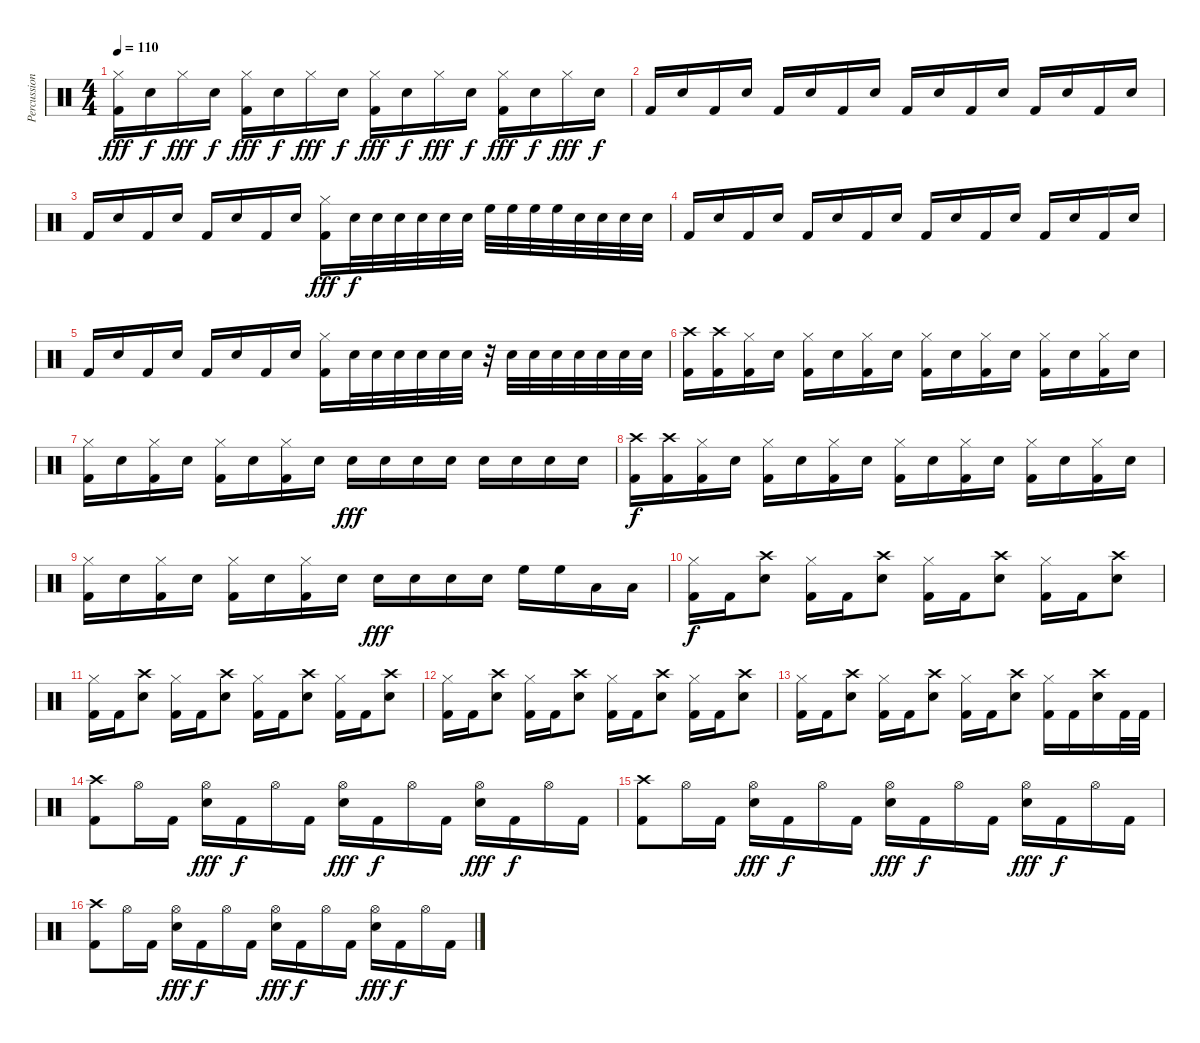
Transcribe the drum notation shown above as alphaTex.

\track ("Percussions" "Percussion") {instrument percussion}
\staff {score}
\articulation defaults
\ts (4 4)
\tempo 110
\clef neutral
\ks c
("Hi-Hat (closed)" "Kick (hit) 2").16{dy fff} "Snare (hit) 2".16{dy f} "Hi-Hat (closed)".16{dy fff} "Snare (hit) 2".16{dy f} ("Hi-Hat (closed)" "Kick (hit) 2").16{dy fff} "Snare (hit) 2".16{dy f} "Hi-Hat (closed)".16{dy fff} "Snare (hit) 2".16{dy f} ("Hi-Hat (closed)" "Kick (hit) 2").16{dy fff} "Snare (hit) 2".16{dy f} "Hi-Hat (closed)".16{dy fff} "Snare (hit) 2".16{dy f} ("Hi-Hat (closed)" "Kick (hit) 2").16{dy fff} "Snare (hit) 2".16{dy f} "Hi-Hat (closed)".16{dy fff} "Snare (hit) 2".16{dy f} |
"Kick (hit) 2".16 "Snare (hit) 2".16 "Kick (hit) 2".16 "Snare (hit) 2".16 "Kick (hit) 2".16 "Snare (hit) 2".16 "Kick (hit) 2".16 "Snare (hit) 2".16 "Kick (hit) 2".16 "Snare (hit) 2".16 "Kick (hit) 2".16 "Snare (hit) 2".16 "Kick (hit) 2".16 "Snare (hit) 2".16 "Kick (hit) 2".16 "Snare (hit) 2".16 |
"Kick (hit) 2".16 "Snare (hit) 2".16 "Kick (hit) 2".16 "Snare (hit) 2".16 "Kick (hit) 2".16 "Snare (hit) 2".16 "Kick (hit) 2".16 "Snare (hit) 2".16 ("Hi-Hat (closed)" "Kick (hit) 2").16{dy fff} "Snare (hit) 2".32{dy f} "Snare (hit) 2".32 "Snare (hit) 2".32 "Snare (hit) 2".32 "Snare (hit) 2".32 "Snare (hit) 2".32 "High Floor Tom (hit)".32 "High Floor Tom (hit)".32 "High Floor Tom (hit)".32 "High Floor Tom (hit)".32 "Snare (hit) 2".32 "Snare (hit) 2".32 "Snare (hit) 2".32 "Snare (hit) 2".32 |
"Kick (hit) 2".16 "Snare (hit) 2".16 "Kick (hit) 2".16 "Snare (hit) 2".16 "Kick (hit) 2".16 "Snare (hit) 2".16 "Kick (hit) 2".16 "Snare (hit) 2".16 "Kick (hit) 2".16 "Snare (hit) 2".16 "Kick (hit) 2".16 "Snare (hit) 2".16 "Kick (hit) 2".16 "Snare (hit) 2".16 "Kick (hit) 2".16 "Snare (hit) 2".16 |
"Kick (hit) 2".16 "Snare (hit) 2".16 "Kick (hit) 2".16 "Snare (hit) 2".16 "Kick (hit) 2".16 "Snare (hit) 2".16 "Kick (hit) 2".16 "Snare (hit) 2".16 ("Hi-Hat (closed)" "Kick (hit) 2").16 "Snare (hit) 2".32 "Snare (hit) 2".32 "Snare (hit) 2".32 "Snare (hit) 2".32 "Snare (hit) 2".32 "Snare (hit) 2".32 r.32 "Snare (hit) 2".32 "Snare (hit) 2".32 "Snare (hit) 2".32 "Snare (hit) 2".32 "Snare (hit) 2".32 "Snare (hit) 2".32 "Snare (hit) 2".32 |
("Crash high (hit)" "Kick (hit) 2").16 ("Crash high (hit)" "Kick (hit) 2").16 ("Hi-Hat (closed)" "Kick (hit) 2").16 "Snare (hit) 2".16 ("Hi-Hat (closed)" "Kick (hit) 2").16 "Snare (hit) 2".16 ("Hi-Hat (closed)" "Kick (hit) 2").16 "Snare (hit) 2".16 ("Hi-Hat (closed)" "Kick (hit) 2").16 "Snare (hit) 2".16 ("Hi-Hat (closed)" "Kick (hit) 2").16 "Snare (hit) 2".16 ("Hi-Hat (closed)" "Kick (hit) 2").16 "Snare (hit) 2".16 ("Hi-Hat (closed)" "Kick (hit) 2").16 "Snare (hit) 2".16 |
("Hi-Hat (closed)" "Kick (hit) 2").16 "Snare (hit) 2".16 ("Hi-Hat (closed)" "Kick (hit) 2").16 "Snare (hit) 2".16 ("Hi-Hat (closed)" "Kick (hit) 2").16 "Snare (hit) 2".16 ("Hi-Hat (closed)" "Kick (hit) 2").16 "Snare (hit) 2".16 "Snare (hit) 2".16{dy fff} "Snare (hit) 2".16 "Snare (hit) 2".16 "Snare (hit) 2".16 "Snare (hit) 2".16 "Snare (hit) 2".16 "Snare (hit) 2".16 "Snare (hit) 2".16 |
("Crash high (hit)" "Kick (hit) 2").16{dy f} ("Crash high (hit)" "Kick (hit) 2").16 ("Hi-Hat (closed)" "Kick (hit) 2").16 "Snare (hit) 2".16 ("Hi-Hat (closed)" "Kick (hit) 2").16 "Snare (hit) 2".16 ("Hi-Hat (closed)" "Kick (hit) 2").16 "Snare (hit) 2".16 ("Hi-Hat (closed)" "Kick (hit) 2").16 "Snare (hit) 2".16 ("Hi-Hat (closed)" "Kick (hit) 2").16 "Snare (hit) 2".16 ("Hi-Hat (closed)" "Kick (hit) 2").16 "Snare (hit) 2".16 ("Hi-Hat (closed)" "Kick (hit) 2").16 "Snare (hit) 2".16 |
("Hi-Hat (closed)" "Kick (hit) 2").16 "Snare (hit) 2".16 ("Hi-Hat (closed)" "Kick (hit) 2").16 "Snare (hit) 2".16 ("Hi-Hat (closed)" "Kick (hit) 2").16 "Snare (hit) 2".16 ("Hi-Hat (closed)" "Kick (hit) 2").16 "Snare (hit) 2".16 "Snare (hit) 2".16{dy fff} "Snare (hit) 2".16 "Snare (hit) 2".16 "Snare (hit) 2".16 "High Floor Tom (hit)".16 "High Floor Tom (hit)".16 "Low Floor Tom (hit)".16 "Low Floor Tom (hit)".16 |
("Hi-Hat (closed)" "Kick (hit) 2").16{dy f} "Kick (hit) 2".16 ("Crash high (hit)" "Snare (hit) 2").8 ("Hi-Hat (closed)" "Kick (hit) 2").16 "Kick (hit) 2".16 ("Crash high (hit)" "Snare (hit) 2").8 ("Hi-Hat (closed)" "Kick (hit) 2").16 "Kick (hit) 2".16 ("Crash high (hit)" "Snare (hit) 2").8 ("Hi-Hat (closed)" "Kick (hit) 2").16 "Kick (hit) 2".16 ("Crash high (hit)" "Snare (hit) 2").8 |
("Hi-Hat (closed)" "Kick (hit) 2").16 "Kick (hit) 2".16 ("Crash high (hit)" "Snare (hit) 2").8 ("Hi-Hat (closed)" "Kick (hit) 2").16 "Kick (hit) 2".16 ("Crash high (hit)" "Snare (hit) 2").8 ("Hi-Hat (closed)" "Kick (hit) 2").16 "Kick (hit) 2".16 ("Crash high (hit)" "Snare (hit) 2").8 ("Hi-Hat (closed)" "Kick (hit) 2").16 "Kick (hit) 2".16 ("Crash high (hit)" "Snare (hit) 2").8 |
("Hi-Hat (closed)" "Kick (hit) 2").16 "Kick (hit) 2".16 ("Crash high (hit)" "Snare (hit) 2").8 ("Hi-Hat (closed)" "Kick (hit) 2").16 "Kick (hit) 2".16 ("Crash high (hit)" "Snare (hit) 2").8 ("Hi-Hat (closed)" "Kick (hit) 2").16 "Kick (hit) 2".16 ("Crash high (hit)" "Snare (hit) 2").8 ("Hi-Hat (closed)" "Kick (hit) 2").16 "Kick (hit) 2".16 ("Crash high (hit)" "Snare (hit) 2").8 |
("Hi-Hat (closed)" "Kick (hit) 2").16 "Kick (hit) 2".16 ("Crash high (hit)" "Snare (hit) 2").8 ("Hi-Hat (closed)" "Kick (hit) 2").16 "Kick (hit) 2".16 ("Crash high (hit)" "Snare (hit) 2").8 ("Hi-Hat (closed)" "Kick (hit) 2").16 "Kick (hit) 2".16 ("Crash high (hit)" "Snare (hit) 2").8 ("Hi-Hat (closed)" "Kick (hit) 2").16 "Kick (hit) 2".16 ("Crash high (hit)" "Snare (hit) 2").16 "Kick (hit) 2".32 "Kick (hit) 2".32 |
("Crash high (hit)" "Kick (hit) 2").8 "Hi-Hat (open)".16 "Kick (hit) 2".16 ("Hi-Hat (open)" "Snare (hit) 2").16{dy fff} "Kick (hit) 2".16{dy f} "Hi-Hat (open)".16 "Kick (hit) 2".16 ("Hi-Hat (open)" "Snare (hit) 2").16{dy fff} "Kick (hit) 2".16{dy f} "Hi-Hat (open)".16 "Kick (hit) 2".16 ("Hi-Hat (open)" "Snare (hit) 2").16{dy fff} "Kick (hit) 2".16{dy f} "Hi-Hat (open)".16 "Kick (hit) 2".16 |
("Crash high (hit)" "Kick (hit) 2").8 "Hi-Hat (open)".16 "Kick (hit) 2".16 ("Hi-Hat (open)" "Snare (hit) 2").16{dy fff} "Kick (hit) 2".16{dy f} "Hi-Hat (open)".16 "Kick (hit) 2".16 ("Hi-Hat (open)" "Snare (hit) 2").16{dy fff} "Kick (hit) 2".16{dy f} "Hi-Hat (open)".16 "Kick (hit) 2".16 ("Hi-Hat (open)" "Snare (hit) 2").16{dy fff} "Kick (hit) 2".16{dy f} "Hi-Hat (open)".16 "Kick (hit) 2".16 |
("Crash high (hit)" "Kick (hit) 2").8 "Hi-Hat (open)".16 "Kick (hit) 2".16 ("Hi-Hat (open)" "Snare (hit) 2").16{dy fff} "Kick (hit) 2".16{dy f} "Hi-Hat (open)".16 "Kick (hit) 2".16 ("Hi-Hat (open)" "Snare (hit) 2").16{dy fff} "Kick (hit) 2".16{dy f} "Hi-Hat (open)".16 "Kick (hit) 2".16 ("Hi-Hat (open)" "Snare (hit) 2").16{dy fff} "Kick (hit) 2".16{dy f} "Hi-Hat (open)".16 "Kick (hit) 2".16
